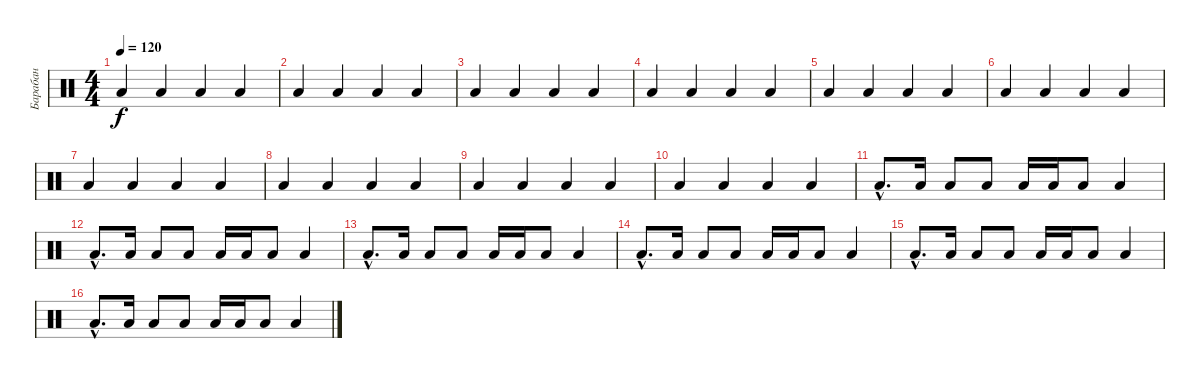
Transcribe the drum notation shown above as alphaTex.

\track ("Барабан" "Барабан") {instrument percussion}
\staff {score}
\articulation defaults
\ts (4 4)
\tempo 120
\clef neutral
\ks c "Low Floor Tom (hit)".4{dy f} "Low Floor Tom (hit)".4 "Low Floor Tom (hit)".4 "Low Floor Tom (hit)".4
|
"Low Floor Tom (hit)".4 "Low Floor Tom (hit)".4 "Low Floor Tom (hit)".4 "Low Floor Tom (hit)".4 |
"Low Floor Tom (hit)".4 "Low Floor Tom (hit)".4 "Low Floor Tom (hit)".4 "Low Floor Tom (hit)".4 |
"Low Floor Tom (hit)".4 "Low Floor Tom (hit)".4 "Low Floor Tom (hit)".4 "Low Floor Tom (hit)".4 |
"Low Floor Tom (hit)".4 "Low Floor Tom (hit)".4 "Low Floor Tom (hit)".4 "Low Floor Tom (hit)".4 |
"Low Floor Tom (hit)".4 "Low Floor Tom (hit)".4 "Low Floor Tom (hit)".4 "Low Floor Tom (hit)".4 |
"Low Floor Tom (hit)".4 "Low Floor Tom (hit)".4 "Low Floor Tom (hit)".4 "Low Floor Tom (hit)".4 |
"Low Floor Tom (hit)".4 "Low Floor Tom (hit)".4 "Low Floor Tom (hit)".4 "Low Floor Tom (hit)".4 |
"Low Floor Tom (hit)".4 "Low Floor Tom (hit)".4 "Low Floor Tom (hit)".4 "Low Floor Tom (hit)".4 |
"Low Floor Tom (hit)".4 "Low Floor Tom (hit)".4 "Low Floor Tom (hit)".4 "Low Floor Tom (hit)".4 |
"Low Floor Tom (hit)"{hac}.8{d} "Low Floor Tom (hit)".16 "Low Floor Tom (hit)".8 "Low Floor Tom (hit)".8 "Low Floor Tom (hit)".16 "Low Floor Tom (hit)".16 "Low Floor Tom (hit)".8 "Low Floor Tom (hit)".4 |
"Low Floor Tom (hit)"{hac}.8{d} "Low Floor Tom (hit)".16 "Low Floor Tom (hit)".8 "Low Floor Tom (hit)".8 "Low Floor Tom (hit)".16 "Low Floor Tom (hit)".16 "Low Floor Tom (hit)".8 "Low Floor Tom (hit)".4 |
"Low Floor Tom (hit)"{hac}.8{d} "Low Floor Tom (hit)".16 "Low Floor Tom (hit)".8 "Low Floor Tom (hit)".8 "Low Floor Tom (hit)".16 "Low Floor Tom (hit)".16 "Low Floor Tom (hit)".8 "Low Floor Tom (hit)".4 |
"Low Floor Tom (hit)"{hac}.8{d} "Low Floor Tom (hit)".16 "Low Floor Tom (hit)".8 "Low Floor Tom (hit)".8 "Low Floor Tom (hit)".16 "Low Floor Tom (hit)".16 "Low Floor Tom (hit)".8 "Low Floor Tom (hit)".4 |
"Low Floor Tom (hit)"{hac}.8{d} "Low Floor Tom (hit)".16 "Low Floor Tom (hit)".8 "Low Floor Tom (hit)".8 "Low Floor Tom (hit)".16 "Low Floor Tom (hit)".16 "Low Floor Tom (hit)".8 "Low Floor Tom (hit)".4 |
"Low Floor Tom (hit)"{hac}.8{d} "Low Floor Tom (hit)".16 "Low Floor Tom (hit)".8 "Low Floor Tom (hit)".8 "Low Floor Tom (hit)".16 "Low Floor Tom (hit)".16 "Low Floor Tom (hit)".8 "Low Floor Tom (hit)".4
